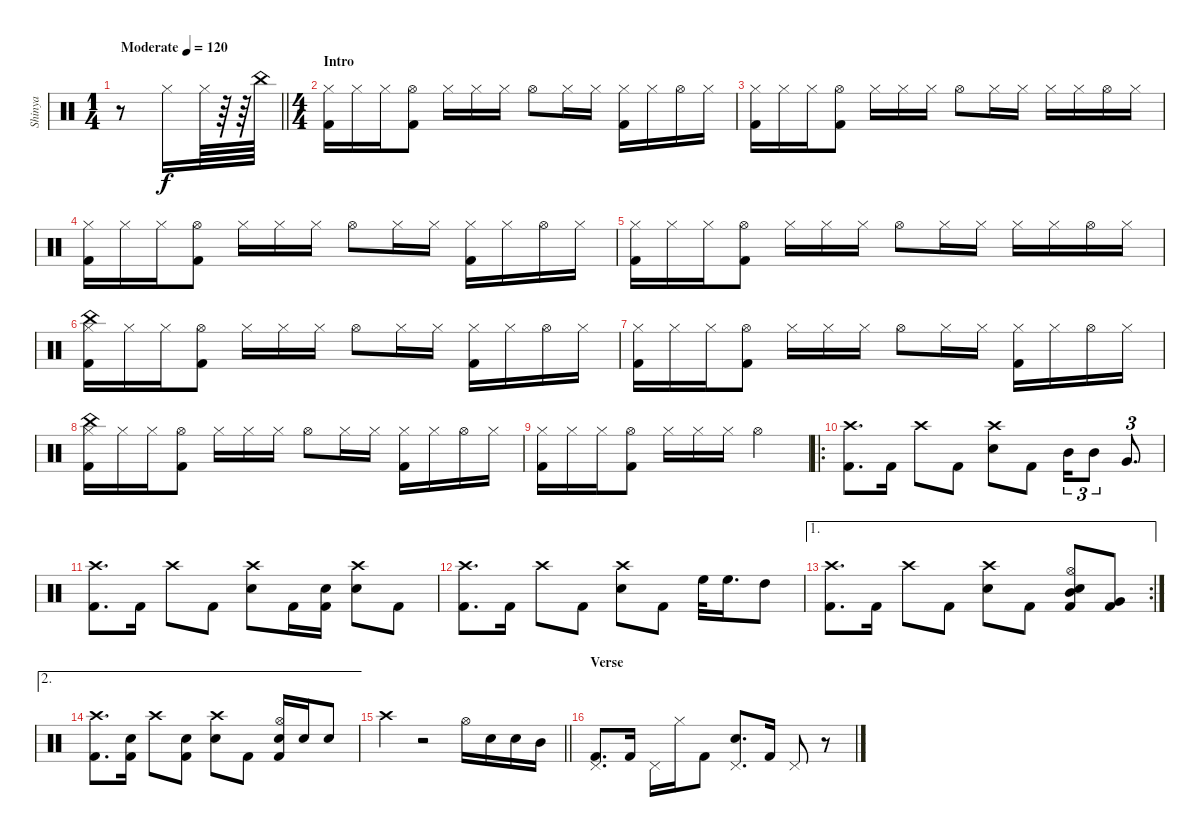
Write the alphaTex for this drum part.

\track ("Shinya" "Shinya") {instrument percussion}
\staff {score}
\articulation defaults
\ts (1 4)
\tempo (120 "Moderate")
\clef neutral
\barLineRight lightlight
\ks c
r.8{dy f} "Hi-Hat (closed)".16 "Hi-Hat (closed)".64 r.64 r.64 "China (hit)".64 |
\ts (4 4)
\section ("" "Intro")
("Hi-Hat (closed)" "Kick (hit) 2").16 "Hi-Hat (closed)".16 "Hi-Hat (closed)".16 ("Hi-Hat (open)" "Kick (hit) 2").8 "Hi-Hat (closed)".16 "Hi-Hat (closed)".16 "Hi-Hat (closed)".16 "Hi-Hat (open)".8 "Hi-Hat (closed)".16 "Hi-Hat (closed)".16 ("Hi-Hat (closed)" "Kick (hit) 2").16 "Hi-Hat (closed)".16 "Hi-Hat (open)".16 "Hi-Hat (closed)".16 |
("Hi-Hat (closed)" "Kick (hit) 2").16 "Hi-Hat (closed)".16 "Hi-Hat (closed)".16 ("Hi-Hat (open)" "Kick (hit) 2").8 "Hi-Hat (closed)".16 "Hi-Hat (closed)".16 "Hi-Hat (closed)".16 "Hi-Hat (open)".8 "Hi-Hat (closed)".16 "Hi-Hat (closed)".16 "Hi-Hat (closed)".16 "Hi-Hat (closed)".16 "Hi-Hat (open)".16 "Hi-Hat (closed)".16 |
("Hi-Hat (closed)" "Kick (hit) 2").16 "Hi-Hat (closed)".16 "Hi-Hat (closed)".16 ("Hi-Hat (open)" "Kick (hit) 2").8 "Hi-Hat (closed)".16 "Hi-Hat (closed)".16 "Hi-Hat (closed)".16 "Hi-Hat (open)".8 "Hi-Hat (closed)".16 "Hi-Hat (closed)".16 ("Hi-Hat (closed)" "Kick (hit) 2").16 "Hi-Hat (closed)".16 "Hi-Hat (open)".16 "Hi-Hat (closed)".16 |
("Hi-Hat (closed)" "Kick (hit) 2").16 "Hi-Hat (closed)".16 "Hi-Hat (closed)".16 ("Hi-Hat (open)" "Kick (hit) 2").8 "Hi-Hat (closed)".16 "Hi-Hat (closed)".16 "Hi-Hat (closed)".16 "Hi-Hat (open)".8 "Hi-Hat (closed)".16 "Hi-Hat (closed)".16 "Hi-Hat (closed)".16 "Hi-Hat (closed)".16 "Hi-Hat (open)".16 "Hi-Hat (closed)".16 |
("Hi-Hat (closed)" "China (hit)" "Kick (hit) 2").16 "Hi-Hat (closed)".16 "Hi-Hat (closed)".16 ("Hi-Hat (open)" "Kick (hit) 2").8 "Hi-Hat (closed)".16 "Hi-Hat (closed)".16 "Hi-Hat (closed)".16 "Hi-Hat (open)".8 "Hi-Hat (closed)".16 "Hi-Hat (closed)".16 ("Hi-Hat (closed)" "Kick (hit) 2").16 "Hi-Hat (closed)".16 "Hi-Hat (open)".16 "Hi-Hat (closed)".16 |
("Hi-Hat (closed)" "Kick (hit) 2").16 "Hi-Hat (closed)".16 "Hi-Hat (closed)".16 ("Hi-Hat (open)" "Kick (hit) 2").8 "Hi-Hat (closed)".16 "Hi-Hat (closed)".16 "Hi-Hat (closed)".16 "Hi-Hat (open)".8 "Hi-Hat (closed)".16 "Hi-Hat (closed)".16 ("Hi-Hat (closed)" "Kick (hit) 2").16 "Hi-Hat (closed)".16 "Hi-Hat (open)".16 "Hi-Hat (closed)".16 |
("Hi-Hat (closed)" "China (hit)" "Kick (hit) 2").16 "Hi-Hat (closed)".16 "Hi-Hat (closed)".16 ("Hi-Hat (open)" "Kick (hit) 2").8 "Hi-Hat (closed)".16 "Hi-Hat (closed)".16 "Hi-Hat (closed)".16 "Hi-Hat (open)".8 "Hi-Hat (closed)".16 "Hi-Hat (closed)".16 ("Hi-Hat (closed)" "Kick (hit) 2").16 "Hi-Hat (closed)".16 "Hi-Hat (open)".16 "Hi-Hat (closed)".16 |
("Hi-Hat (closed)" "Kick (hit) 2").16 "Hi-Hat (closed)".16 "Hi-Hat (closed)".16 ("Hi-Hat (open)" "Kick (hit) 2").8 "Hi-Hat (closed)".16 "Hi-Hat (closed)".16 "Hi-Hat (closed)".16 "Hi-Hat (open)".2 |
\ro
("Crash high (hit)" "Kick (hit) 2").8{d} "Kick (hit) 2".16 "Crash high (hit)".8 "Kick (hit) 2".8 ("Crash high (hit)" "Electric Snare (hit)").8 "Kick (hit) 2".8 "Mid Tom (hit)".16{tu (3 2)} "Mid Tom (hit)".8{tu (3 2)} "Very Low Tom (hit)".8{d tu (3 2)} |
("Crash high (hit)" "Kick (hit) 2").8{d} "Kick (hit) 2".16 "Crash high (hit)".8 "Kick (hit) 2".8 ("Crash high (hit)" "Electric Snare (hit)").8 "Kick (hit) 2".16 ("Snare (hit) 2" "Kick (hit) 2").16 ("Crash high (hit)" "Electric Snare (hit)").8 "Kick (hit) 2".8 |
("Crash high (hit)" "Kick (hit) 2").8{d} "Kick (hit) 2".16 "Crash high (hit)".8 "Kick (hit) 2".8 ("Crash high (hit)" "Electric Snare (hit)").8 "Kick (hit) 2".8 "High Floor Tom (hit)".32 "High Floor Tom (hit)".16{d} "High Tom (hit)".8 |
\ae 1
\rc 2
("Crash high (hit)" "Kick (hit) 2").8{d} "Kick (hit) 2".16 "Crash high (hit)".8 "Kick (hit) 2".8 ("Crash high (hit)" "Electric Snare (hit)").8 "Kick (hit) 2".8 ("Hi-Hat (open)" "Mid Tom (hit)" "Electric Snare (hit)" "Kick (hit) 2").8 ("Very Low Tom (hit)" "Kick (hit) 2").8 |
\ae 2
("Crash high (hit)" "Kick (hit) 2").8{d} ("Snare (hit) 2" "Kick (hit) 2").16 "Crash high (hit)".8 ("Electric Snare (hit)" "Kick (hit) 2").8 ("Crash high (hit)" "Electric Snare (hit)").8 "Kick (hit) 2".8 ("Hi-Hat (open)" "Electric Snare (hit)" "Kick (hit) 2").16 "Electric Snare (hit)".16 "Electric Snare (hit)".8 |
\barLineRight lightlight "Crash high (hit)".4
r.2 "Hi-Hat (open)".16 "Electric Snare (hit)".16 "Electric Snare (hit)".16 "Mid Tom (hit)".16 |
\section ("" "Verse")
("Pedal Hi-Hat (hit)" "Kick (hit) 2").8{d} "Kick (hit) 2".16 "Pedal Hi-Hat (hit)".16 "Hi-Hat (closed)".16 "Kick (hit) 2".8 ("Pedal Hi-Hat (hit)" "Electric Snare (hit)").8{d} "Kick (hit) 2".16 "Pedal Hi-Hat (hit)".8 r.8
